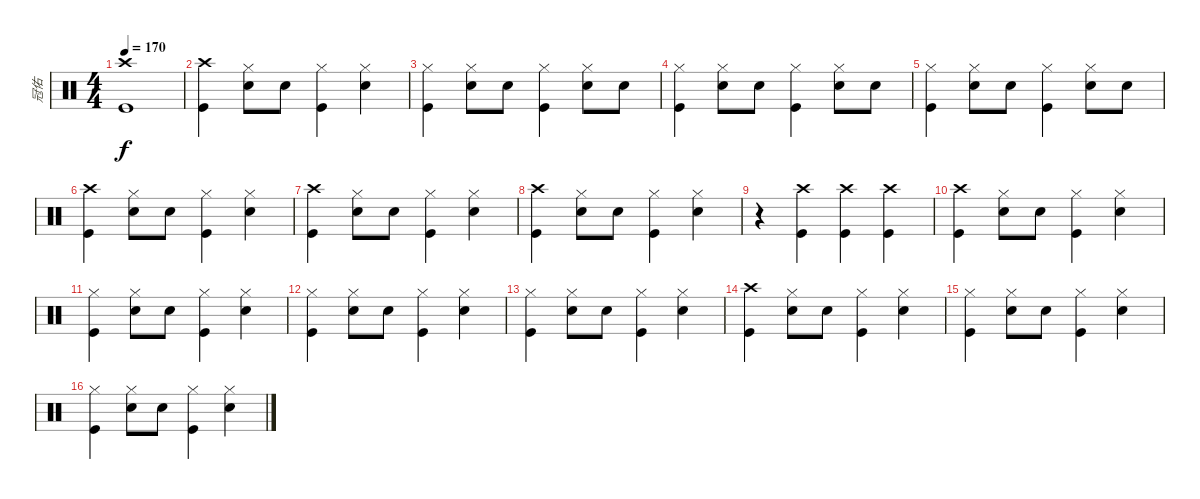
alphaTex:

\track ("冠佑" "冠佑") {instrument percussion}
\staff {score}
\articulation defaults
\ts (4 4)
\tempo 170
\clef neutral
\ks c
("Crash high (hit)" "Kick (hit)").1{dy f} |
("Crash high (hit)" "Kick (hit)").4 ("Hi-Hat (closed)" "Snare (hit) 2").8 "Snare (hit) 2".8 ("Hi-Hat (closed)" "Kick (hit)").4 ("Hi-Hat (closed)" "Snare (hit) 2").4 |
("Hi-Hat (closed)" "Kick (hit)").4 ("Hi-Hat (closed)" "Snare (hit) 2").8 "Snare (hit) 2".8 ("Hi-Hat (closed)" "Kick (hit)").4 ("Hi-Hat (closed)" "Snare (hit) 2").8 "Snare (hit) 2".8 |
("Hi-Hat (closed)" "Kick (hit)").4 ("Hi-Hat (closed)" "Snare (hit) 2").8 "Snare (hit) 2".8 ("Hi-Hat (closed)" "Kick (hit)").4 ("Hi-Hat (closed)" "Snare (hit) 2").8 "Snare (hit) 2".8 |
("Hi-Hat (closed)" "Kick (hit)").4 ("Hi-Hat (closed)" "Snare (hit) 2").8 "Snare (hit) 2".8 ("Hi-Hat (closed)" "Kick (hit)").4 ("Hi-Hat (closed)" "Snare (hit) 2").8 "Snare (hit) 2".8 |
("Crash high (hit)" "Kick (hit)").4 ("Hi-Hat (closed)" "Snare (hit) 2").8 "Snare (hit) 2".8 ("Hi-Hat (closed)" "Kick (hit)").4 ("Hi-Hat (closed)" "Snare (hit) 2").4 |
("Crash high (hit)" "Kick (hit)").4 ("Hi-Hat (closed)" "Snare (hit) 2").8 "Snare (hit) 2".8 ("Hi-Hat (closed)" "Kick (hit)").4 ("Hi-Hat (closed)" "Snare (hit) 2").4 |
("Crash high (hit)" "Kick (hit)").4 ("Hi-Hat (closed)" "Snare (hit) 2").8 "Snare (hit) 2".8 ("Hi-Hat (closed)" "Kick (hit)").4 ("Hi-Hat (closed)" "Snare (hit) 2").4 |
r.4 ("Crash high (hit)" "Kick (hit)").4 ("Crash high (hit)" "Kick (hit)").4 ("Crash high (hit)" "Kick (hit)").4 |
("Crash high (hit)" "Kick (hit)").4 ("Hi-Hat (closed)" "Snare (hit) 2").8 "Snare (hit) 2".8 ("Hi-Hat (closed)" "Kick (hit)").4 ("Hi-Hat (closed)" "Snare (hit) 2").4 |
("Hi-Hat (closed)" "Kick (hit)").4 ("Hi-Hat (closed)" "Snare (hit) 2").8 "Snare (hit) 2".8 ("Hi-Hat (closed)" "Kick (hit)").4 ("Hi-Hat (closed)" "Snare (hit) 2").4 |
("Hi-Hat (closed)" "Kick (hit)").4 ("Hi-Hat (closed)" "Snare (hit) 2").8 "Snare (hit) 2".8 ("Hi-Hat (closed)" "Kick (hit)").4 ("Hi-Hat (closed)" "Snare (hit) 2").4 |
("Hi-Hat (closed)" "Kick (hit)").4 ("Hi-Hat (closed)" "Snare (hit) 2").8 "Snare (hit) 2".8 ("Hi-Hat (closed)" "Kick (hit)").4 ("Hi-Hat (closed)" "Snare (hit) 2").4 |
("Crash high (hit)" "Kick (hit)").4 ("Hi-Hat (closed)" "Snare (hit) 2").8 "Snare (hit) 2".8 ("Hi-Hat (closed)" "Kick (hit)").4 ("Hi-Hat (closed)" "Snare (hit) 2").4 |
("Hi-Hat (closed)" "Kick (hit)").4 ("Hi-Hat (closed)" "Snare (hit) 2").8 "Snare (hit) 2".8 ("Hi-Hat (closed)" "Kick (hit)").4 ("Hi-Hat (closed)" "Snare (hit) 2").4 |
("Hi-Hat (closed)" "Kick (hit)").4 ("Hi-Hat (closed)" "Snare (hit) 2").8 "Snare (hit) 2".8 ("Hi-Hat (closed)" "Kick (hit)").4 ("Hi-Hat (closed)" "Snare (hit) 2").4
